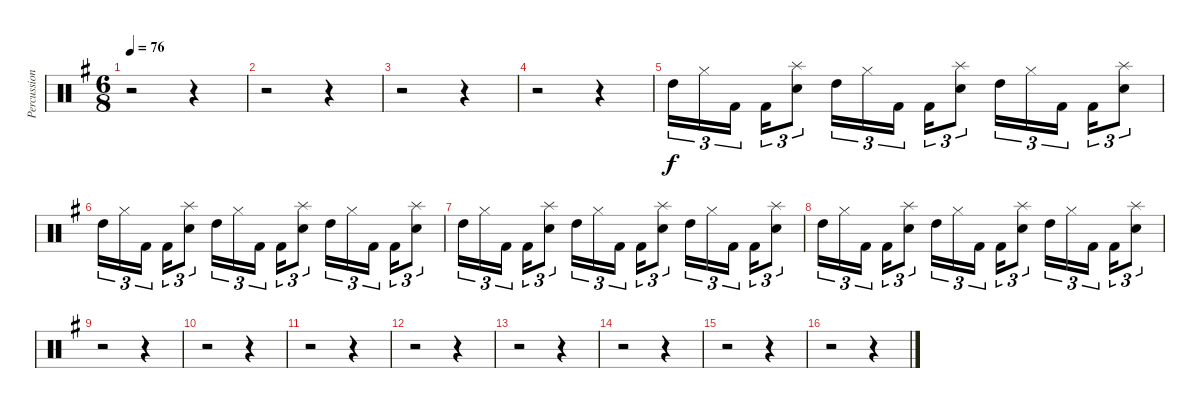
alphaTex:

\track ("Percussions 3" "Percussion") {instrument percussion}
\staff {score}
\articulation defaults
\ts (6 8)
\tempo 76
\clef neutral
\ks g
r.2{dy f} r.4 |
r.2 r.4 |
r.2 r.4 |
r.2 r.4 |
"High Tom (hit)".16{tu (3 2)} "Hi-Hat (closed)".16{tu (3 2)} "Kick (hit) 2".16{tu (3 2)} "Kick (hit) 2".16{tu (3 2)} ("Splash (hit)" "Snare (hit) 2").8{tu (3 2)} "High Tom (hit)".16{tu (3 2)} "Hi-Hat (closed)".16{tu (3 2)} "Kick (hit) 2".16{tu (3 2)} "Kick (hit) 2".16{tu (3 2)} ("Splash (hit)" "Snare (hit) 2").8{tu (3 2)} "High Tom (hit)".16{tu (3 2)} "Hi-Hat (closed)".16{tu (3 2)} "Kick (hit) 2".16{tu (3 2)} "Kick (hit) 2".16{tu (3 2)} ("Splash (hit)" "Snare (hit) 2").8{tu (3 2)} |
"High Tom (hit)".16{tu (3 2)} "Hi-Hat (closed)".16{tu (3 2)} "Kick (hit) 2".16{tu (3 2)} "Kick (hit) 2".16{tu (3 2)} ("Splash (hit)" "Snare (hit) 2").8{tu (3 2)} "High Tom (hit)".16{tu (3 2)} "Hi-Hat (closed)".16{tu (3 2)} "Kick (hit) 2".16{tu (3 2)} "Kick (hit) 2".16{tu (3 2)} ("Splash (hit)" "Snare (hit) 2").8{tu (3 2)} "High Tom (hit)".16{tu (3 2)} "Hi-Hat (closed)".16{tu (3 2)} "Kick (hit) 2".16{tu (3 2)} "Kick (hit) 2".16{tu (3 2)} ("Splash (hit)" "Snare (hit) 2").8{tu (3 2)} |
"High Tom (hit)".16{tu (3 2)} "Hi-Hat (closed)".16{tu (3 2)} "Kick (hit) 2".16{tu (3 2)} "Kick (hit) 2".16{tu (3 2)} ("Splash (hit)" "Snare (hit) 2").8{tu (3 2)} "High Tom (hit)".16{tu (3 2)} "Hi-Hat (closed)".16{tu (3 2)} "Kick (hit) 2".16{tu (3 2)} "Kick (hit) 2".16{tu (3 2)} ("Splash (hit)" "Snare (hit) 2").8{tu (3 2)} "High Tom (hit)".16{tu (3 2)} "Hi-Hat (closed)".16{tu (3 2)} "Kick (hit) 2".16{tu (3 2)} "Kick (hit) 2".16{tu (3 2)} ("Splash (hit)" "Snare (hit) 2").8{tu (3 2)} |
"High Tom (hit)".16{tu (3 2)} "Hi-Hat (closed)".16{tu (3 2)} "Kick (hit) 2".16{tu (3 2)} "Kick (hit) 2".16{tu (3 2)} ("Splash (hit)" "Snare (hit) 2").8{tu (3 2)} "High Tom (hit)".16{tu (3 2)} "Hi-Hat (closed)".16{tu (3 2)} "Kick (hit) 2".16{tu (3 2)} "Kick (hit) 2".16{tu (3 2)} ("Splash (hit)" "Snare (hit) 2").8{tu (3 2)} "High Tom (hit)".16{tu (3 2)} "Hi-Hat (closed)".16{tu (3 2)} "Kick (hit) 2".16{tu (3 2)} "Kick (hit) 2".16{tu (3 2)} ("Splash (hit)" "Snare (hit) 2").8{tu (3 2)} |
r.2 r.4 |
r.2 r.4 |
r.2 r.4 |
r.2 r.4 |
r.2 r.4 |
r.2 r.4 |
r.2 r.4 |
r.2 r.4
